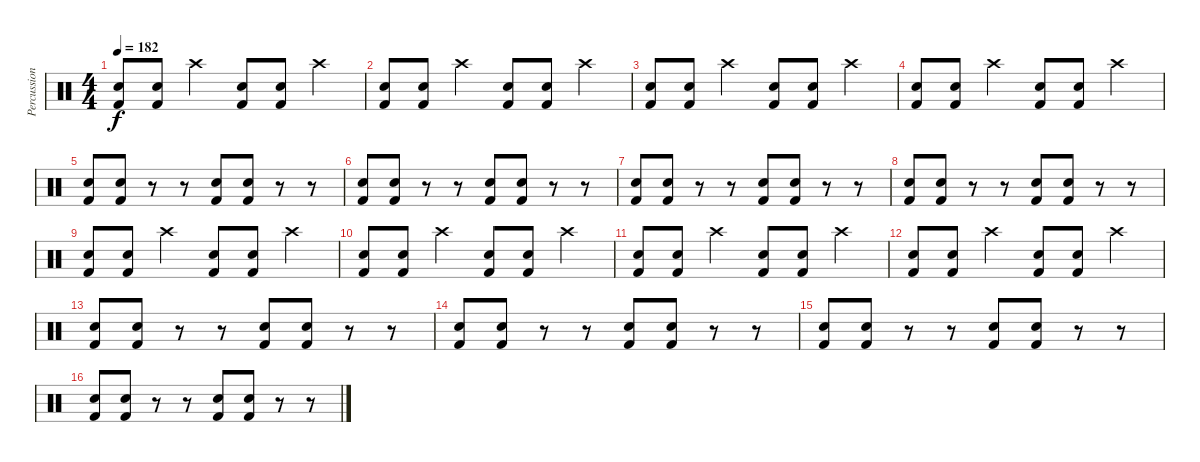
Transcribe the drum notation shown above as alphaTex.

\track ("Percussion" "Percussion") {instrument percussion}
\staff {score}
\articulation defaults
\ts (4 4)
\tempo 182
\clef neutral
\ks c
("Electric Snare (hit)" "Kick (hit) 2").8{dy f} ("Electric Snare (hit)" "Kick (hit) 2").8 "Crash high (hit)".4 ("Electric Snare (hit)" "Kick (hit) 2").8 ("Electric Snare (hit)" "Kick (hit) 2").8 "Crash high (hit)".4 |
("Electric Snare (hit)" "Kick (hit) 2").8 ("Electric Snare (hit)" "Kick (hit) 2").8 "Crash high (hit)".4 ("Electric Snare (hit)" "Kick (hit) 2").8 ("Electric Snare (hit)" "Kick (hit) 2").8 "Crash high (hit)".4 |
("Electric Snare (hit)" "Kick (hit) 2").8 ("Electric Snare (hit)" "Kick (hit) 2").8 "Crash high (hit)".4 ("Electric Snare (hit)" "Kick (hit) 2").8 ("Electric Snare (hit)" "Kick (hit) 2").8 "Crash high (hit)".4 |
("Electric Snare (hit)" "Kick (hit) 2").8 ("Electric Snare (hit)" "Kick (hit) 2").8 "Crash high (hit)".4 ("Electric Snare (hit)" "Kick (hit) 2").8 ("Electric Snare (hit)" "Kick (hit) 2").8 "Crash high (hit)".4 |
("Electric Snare (hit)" "Kick (hit) 2").8 ("Electric Snare (hit)" "Kick (hit) 2").8 r.8 r.8 ("Electric Snare (hit)" "Kick (hit) 2").8 ("Electric Snare (hit)" "Kick (hit) 2").8 r.8 r.8 |
("Electric Snare (hit)" "Kick (hit) 2").8 ("Electric Snare (hit)" "Kick (hit) 2").8 r.8 r.8 ("Electric Snare (hit)" "Kick (hit) 2").8 ("Electric Snare (hit)" "Kick (hit) 2").8 r.8 r.8 |
("Electric Snare (hit)" "Kick (hit) 2").8 ("Electric Snare (hit)" "Kick (hit) 2").8 r.8 r.8 ("Electric Snare (hit)" "Kick (hit) 2").8 ("Electric Snare (hit)" "Kick (hit) 2").8 r.8 r.8 |
("Electric Snare (hit)" "Kick (hit) 2").8 ("Electric Snare (hit)" "Kick (hit) 2").8 r.8 r.8 ("Electric Snare (hit)" "Kick (hit) 2").8 ("Electric Snare (hit)" "Kick (hit) 2").8 r.8 r.8 |
("Electric Snare (hit)" "Kick (hit) 2").8 ("Electric Snare (hit)" "Kick (hit) 2").8 "Crash high (hit)".4 ("Electric Snare (hit)" "Kick (hit) 2").8 ("Electric Snare (hit)" "Kick (hit) 2").8 "Crash high (hit)".4 |
("Electric Snare (hit)" "Kick (hit) 2").8 ("Electric Snare (hit)" "Kick (hit) 2").8 "Crash high (hit)".4 ("Electric Snare (hit)" "Kick (hit) 2").8 ("Electric Snare (hit)" "Kick (hit) 2").8 "Crash high (hit)".4 |
("Electric Snare (hit)" "Kick (hit) 2").8 ("Electric Snare (hit)" "Kick (hit) 2").8 "Crash high (hit)".4 ("Electric Snare (hit)" "Kick (hit) 2").8 ("Electric Snare (hit)" "Kick (hit) 2").8 "Crash high (hit)".4 |
("Electric Snare (hit)" "Kick (hit) 2").8 ("Electric Snare (hit)" "Kick (hit) 2").8 "Crash high (hit)".4 ("Electric Snare (hit)" "Kick (hit) 2").8 ("Electric Snare (hit)" "Kick (hit) 2").8 "Crash high (hit)".4 |
("Electric Snare (hit)" "Kick (hit) 2").8 ("Electric Snare (hit)" "Kick (hit) 2").8 r.8 r.8 ("Electric Snare (hit)" "Kick (hit) 2").8 ("Electric Snare (hit)" "Kick (hit) 2").8 r.8 r.8 |
("Electric Snare (hit)" "Kick (hit) 2").8 ("Electric Snare (hit)" "Kick (hit) 2").8 r.8 r.8 ("Electric Snare (hit)" "Kick (hit) 2").8 ("Electric Snare (hit)" "Kick (hit) 2").8 r.8 r.8 |
("Electric Snare (hit)" "Kick (hit) 2").8 ("Electric Snare (hit)" "Kick (hit) 2").8 r.8 r.8 ("Electric Snare (hit)" "Kick (hit) 2").8 ("Electric Snare (hit)" "Kick (hit) 2").8 r.8 r.8 |
("Electric Snare (hit)" "Kick (hit) 2").8 ("Electric Snare (hit)" "Kick (hit) 2").8 r.8 r.8 ("Electric Snare (hit)" "Kick (hit) 2").8 ("Electric Snare (hit)" "Kick (hit) 2").8 r.8 r.8
